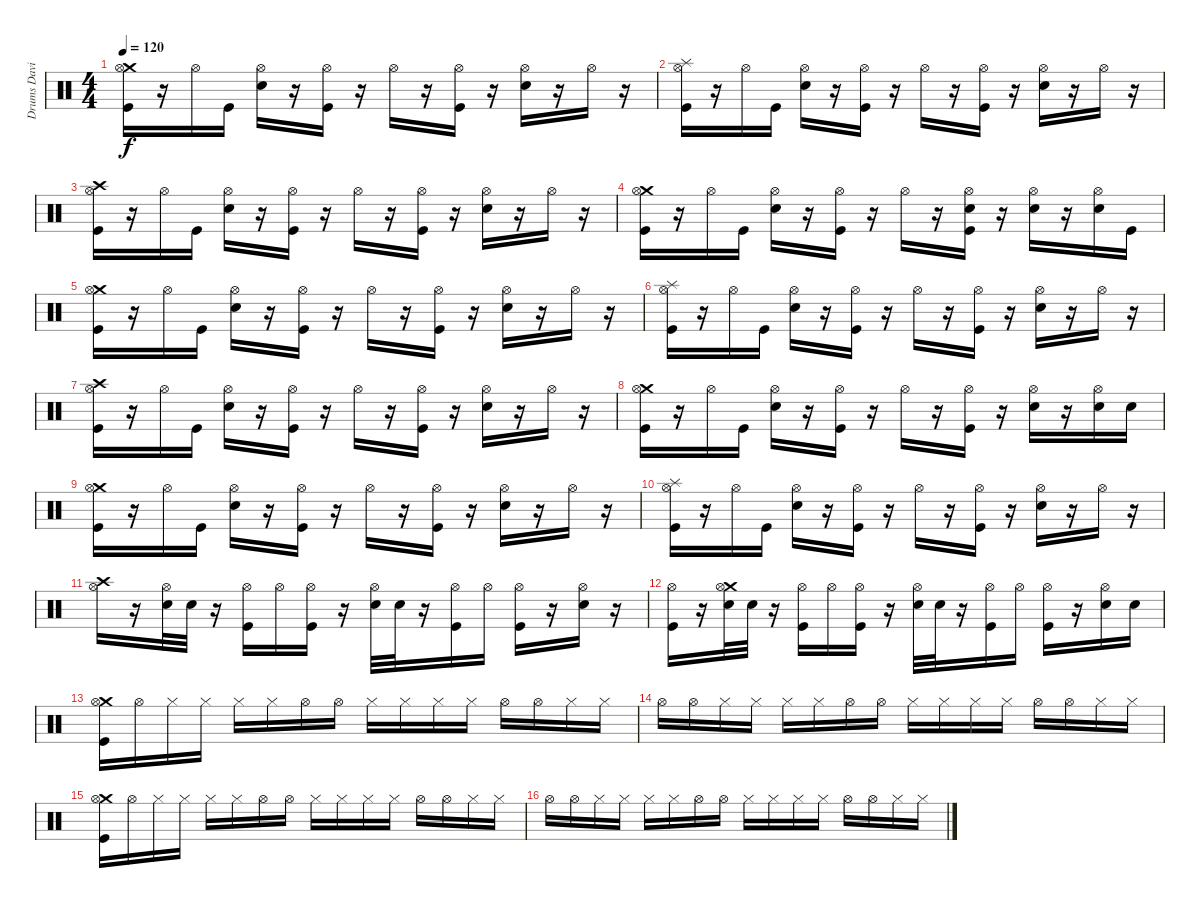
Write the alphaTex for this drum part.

\track ("Drums David" "Drums Davi") {instrument percussion}
\staff {score}
\articulation defaults
\ts (4 4)
\tempo 120
\clef neutral
\ks c
("Crash medium (hit)" "Hi-Hat (open)" "Kick (hit)").16{dy f} r.16 "Hi-Hat (open)".16 "Kick (hit)".16 ("Hi-Hat (open)" "Electric Snare (hit)").16 r.16 ("Hi-Hat (open)" "Kick (hit)").16 r.16 "Hi-Hat (open)".16 r.16 ("Hi-Hat (open)" "Kick (hit)").16 r.16 ("Hi-Hat (open)" "Electric Snare (hit)").16 r.16 "Hi-Hat (open)".16 r.16 |
("Splash (hit)" "Hi-Hat (open)" "Kick (hit)").16 r.16 "Hi-Hat (open)".16 "Kick (hit)".16 ("Hi-Hat (open)" "Electric Snare (hit)").16 r.16 ("Hi-Hat (open)" "Kick (hit)").16 r.16 "Hi-Hat (open)".16 r.16 ("Hi-Hat (open)" "Kick (hit)").16 r.16 ("Hi-Hat (open)" "Electric Snare (hit)").16 r.16 "Hi-Hat (open)".16 r.16 |
("Crash high (hit)" "Hi-Hat (open)" "Kick (hit)").16 r.16 "Hi-Hat (open)".16 "Kick (hit)".16 ("Hi-Hat (open)" "Electric Snare (hit)").16 r.16 ("Hi-Hat (open)" "Kick (hit)").16 r.16 "Hi-Hat (open)".16 r.16 ("Hi-Hat (open)" "Kick (hit)").16 r.16 ("Hi-Hat (open)" "Electric Snare (hit)").16 r.16 "Hi-Hat (open)".16 r.16 |
("Crash medium (hit)" "Hi-Hat (open)" "Kick (hit)").16 r.16 "Hi-Hat (open)".16 "Kick (hit)".16 ("Hi-Hat (open)" "Electric Snare (hit)").16 r.16 ("Hi-Hat (open)" "Kick (hit)").16 r.16 "Hi-Hat (open)".16 r.16 ("Hi-Hat (open)" "Electric Snare (hit)" "Kick (hit)").16 r.16 ("Hi-Hat (open)" "Electric Snare (hit)").16 r.16 ("Hi-Hat (open)" "Electric Snare (hit)").16 "Kick (hit)".16 |
("Crash medium (hit)" "Hi-Hat (open)" "Kick (hit)").16 r.16 "Hi-Hat (open)".16 "Kick (hit)".16 ("Hi-Hat (open)" "Electric Snare (hit)").16 r.16 ("Hi-Hat (open)" "Kick (hit)").16 r.16 "Hi-Hat (open)".16 r.16 ("Hi-Hat (open)" "Kick (hit)").16 r.16 ("Hi-Hat (open)" "Electric Snare (hit)").16 r.16 "Hi-Hat (open)".16 r.16 |
("Splash (hit)" "Hi-Hat (open)" "Kick (hit)").16 r.16 "Hi-Hat (open)".16 "Kick (hit)".16 ("Hi-Hat (open)" "Electric Snare (hit)").16 r.16 ("Hi-Hat (open)" "Kick (hit)").16 r.16 "Hi-Hat (open)".16 r.16 ("Hi-Hat (open)" "Kick (hit)").16 r.16 ("Hi-Hat (open)" "Electric Snare (hit)").16 r.16 "Hi-Hat (open)".16 r.16 |
("Crash high (hit)" "Hi-Hat (open)" "Kick (hit)").16 r.16 "Hi-Hat (open)".16 "Kick (hit)".16 ("Hi-Hat (open)" "Electric Snare (hit)").16 r.16 ("Hi-Hat (open)" "Kick (hit)").16 r.16 "Hi-Hat (open)".16 r.16 ("Hi-Hat (open)" "Kick (hit)").16 r.16 ("Hi-Hat (open)" "Electric Snare (hit)").16 r.16 "Hi-Hat (open)".16 r.16 |
("Crash medium (hit)" "Hi-Hat (open)" "Kick (hit)").16 r.16 "Hi-Hat (open)".16 "Kick (hit)".16 ("Hi-Hat (open)" "Electric Snare (hit)").16 r.16 ("Hi-Hat (open)" "Kick (hit)").16 r.16 "Hi-Hat (open)".16 r.16 ("Hi-Hat (open)" "Kick (hit)").16 r.16 ("Hi-Hat (open)" "Electric Snare (hit)").16 r.16 ("Hi-Hat (open)" "Electric Snare (hit)").16 "Electric Snare (hit)".16 |
("Crash medium (hit)" "Hi-Hat (open)" "Kick (hit)").16 r.16 "Hi-Hat (open)".16 "Kick (hit)".16 ("Hi-Hat (open)" "Electric Snare (hit)").16 r.16 ("Hi-Hat (open)" "Kick (hit)").16 r.16 "Hi-Hat (open)".16 r.16 ("Hi-Hat (open)" "Kick (hit)").16 r.16 ("Hi-Hat (open)" "Electric Snare (hit)").16 r.16 "Hi-Hat (open)".16 r.16 |
("Splash (hit)" "Hi-Hat (open)" "Kick (hit)").16 r.16 "Hi-Hat (open)".16 "Kick (hit)".16 ("Hi-Hat (open)" "Electric Snare (hit)").16 r.16 ("Hi-Hat (open)" "Kick (hit)").16 r.16 "Hi-Hat (open)".16 r.16 ("Hi-Hat (open)" "Kick (hit)").16 r.16 ("Hi-Hat (open)" "Electric Snare (hit)").16 r.16 "Hi-Hat (open)".16 r.16 |
("Crash high (hit)" "Hi-Hat (open)").16 r.16 ("Hi-Hat (open)" "Electric Snare (hit)").32 "Electric Snare (hit)".32 r.16 ("Hi-Hat (open)" "Kick (hit)").16 "Hi-Hat (open)".16 ("Hi-Hat (open)" "Kick (hit)").16 r.16 ("Hi-Hat (open)" "Electric Snare (hit)").32 "Electric Snare (hit)".32 r.16 ("Hi-Hat (open)" "Kick (hit)").16 "Hi-Hat (open)".16 ("Hi-Hat (open)" "Kick (hit)").16 r.16 ("Hi-Hat (open)" "Electric Snare (hit)").16 r.16 |
("Hi-Hat (open)" "Kick (hit)").16 r.16 ("Crash medium (hit)" "Hi-Hat (open)" "Electric Snare (hit)").32 "Electric Snare (hit)".32 r.16 ("Hi-Hat (open)" "Kick (hit)").16 "Hi-Hat (open)".16 ("Hi-Hat (open)" "Kick (hit)").16 r.16 ("Hi-Hat (open)" "Electric Snare (hit)").32 "Electric Snare (hit)".32 r.16 ("Hi-Hat (open)" "Kick (hit)").16 "Hi-Hat (open)".16 ("Hi-Hat (open)" "Kick (hit)").16 r.16 ("Hi-Hat (open)" "Electric Snare (hit)").16 "Electric Snare (hit)".16 |
("Crash medium (hit)" "Hi-Hat (open)" "Kick (hit)").16 "Hi-Hat (open)".16 "Hi-Hat (closed)".16 "Hi-Hat (closed)".16 "Hi-Hat (closed)".16 "Hi-Hat (closed)".16 "Hi-Hat (open)".16 "Hi-Hat (open)".16 "Hi-Hat (closed)".16 "Hi-Hat (closed)".16 "Hi-Hat (closed)".16 "Hi-Hat (closed)".16 "Hi-Hat (open)".16 "Hi-Hat (open)".16 "Hi-Hat (closed)".16 "Hi-Hat (closed)".16 |
"Hi-Hat (open)".16 "Hi-Hat (open)".16 "Hi-Hat (closed)".16 "Hi-Hat (closed)".16 "Hi-Hat (closed)".16 "Hi-Hat (closed)".16 "Hi-Hat (open)".16 "Hi-Hat (open)".16 "Hi-Hat (closed)".16 "Hi-Hat (closed)".16 "Hi-Hat (closed)".16 "Hi-Hat (closed)".16 "Hi-Hat (open)".16 "Hi-Hat (open)".16 "Hi-Hat (closed)".16 "Hi-Hat (closed)".16 |
("Crash medium (hit)" "Hi-Hat (open)" "Kick (hit)").16 "Hi-Hat (open)".16 "Hi-Hat (closed)".16 "Hi-Hat (closed)".16 "Hi-Hat (closed)".16 "Hi-Hat (closed)".16 "Hi-Hat (open)".16 "Hi-Hat (open)".16 "Hi-Hat (closed)".16 "Hi-Hat (closed)".16 "Hi-Hat (closed)".16 "Hi-Hat (closed)".16 "Hi-Hat (open)".16 "Hi-Hat (open)".16 "Hi-Hat (closed)".16 "Hi-Hat (closed)".16 |
"Hi-Hat (open)".16 "Hi-Hat (open)".16 "Hi-Hat (closed)".16 "Hi-Hat (closed)".16 "Hi-Hat (closed)".16 "Hi-Hat (closed)".16 "Hi-Hat (open)".16 "Hi-Hat (open)".16 "Hi-Hat (closed)".16 "Hi-Hat (closed)".16 "Hi-Hat (closed)".16 "Hi-Hat (closed)".16 "Hi-Hat (open)".16 "Hi-Hat (open)".16 "Hi-Hat (closed)".16 "Hi-Hat (closed)".16
